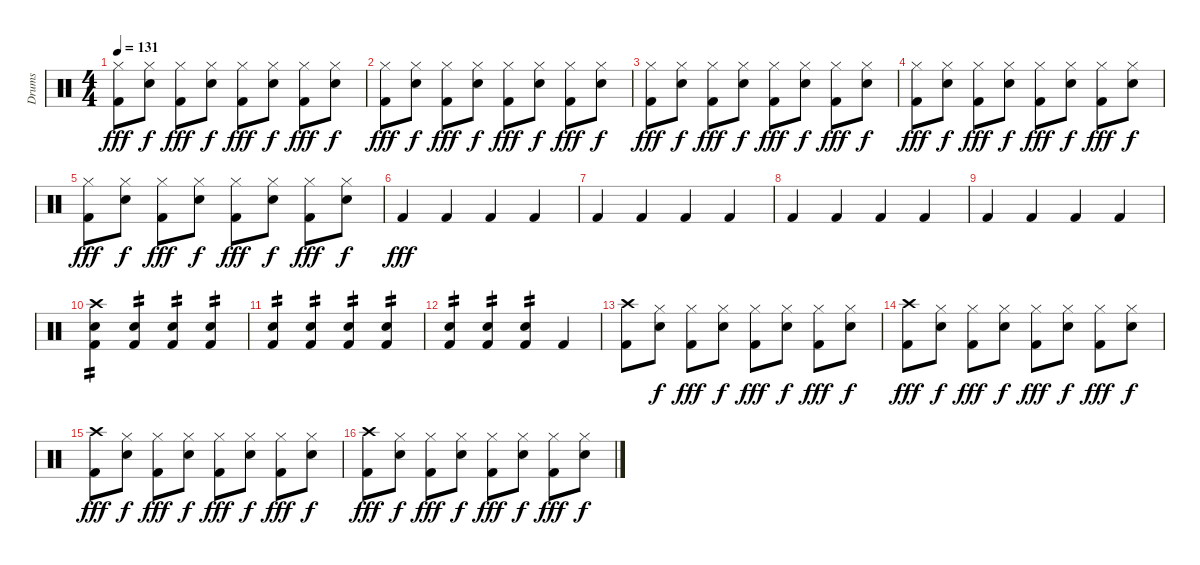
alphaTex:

\track ("Drums" "Drums") {instrument percussion}
\staff {score}
\articulation defaults
\ts (4 4)
\tempo 131
\clef neutral
\ks c
("Hi-Hat (closed)" "Kick (hit) 2").8{dy fff} ("Hi-Hat (closed)" "Electric Snare (hit)").8{dy f} ("Hi-Hat (closed)" "Kick (hit) 2").8{dy fff} ("Hi-Hat (closed)" "Electric Snare (hit)").8{dy f} ("Hi-Hat (closed)" "Kick (hit) 2").8{dy fff} ("Hi-Hat (closed)" "Electric Snare (hit)").8{dy f} ("Hi-Hat (closed)" "Kick (hit) 2").8{dy fff} ("Hi-Hat (closed)" "Electric Snare (hit)").8{dy f} |
("Hi-Hat (closed)" "Kick (hit) 2").8{dy fff} ("Hi-Hat (closed)" "Electric Snare (hit)").8{dy f} ("Hi-Hat (closed)" "Kick (hit) 2").8{dy fff} ("Hi-Hat (closed)" "Electric Snare (hit)").8{dy f} ("Hi-Hat (closed)" "Kick (hit) 2").8{dy fff} ("Hi-Hat (closed)" "Electric Snare (hit)").8{dy f} ("Hi-Hat (closed)" "Kick (hit) 2").8{dy fff} ("Hi-Hat (closed)" "Electric Snare (hit)").8{dy f} |
("Hi-Hat (closed)" "Kick (hit) 2").8{dy fff} ("Hi-Hat (closed)" "Electric Snare (hit)").8{dy f} ("Hi-Hat (closed)" "Kick (hit) 2").8{dy fff} ("Hi-Hat (closed)" "Electric Snare (hit)").8{dy f} ("Hi-Hat (closed)" "Kick (hit) 2").8{dy fff} ("Hi-Hat (closed)" "Electric Snare (hit)").8{dy f} ("Hi-Hat (closed)" "Kick (hit) 2").8{dy fff} ("Hi-Hat (closed)" "Electric Snare (hit)").8{dy f} |
("Hi-Hat (closed)" "Kick (hit) 2").8{dy fff} ("Hi-Hat (closed)" "Electric Snare (hit)").8{dy f} ("Hi-Hat (closed)" "Kick (hit) 2").8{dy fff} ("Hi-Hat (closed)" "Electric Snare (hit)").8{dy f} ("Hi-Hat (closed)" "Kick (hit) 2").8{dy fff} ("Hi-Hat (closed)" "Electric Snare (hit)").8{dy f} ("Hi-Hat (closed)" "Kick (hit) 2").8{dy fff} ("Hi-Hat (closed)" "Electric Snare (hit)").8{dy f} |
("Hi-Hat (closed)" "Kick (hit) 2").8{dy fff} ("Hi-Hat (closed)" "Electric Snare (hit)").8{dy f} ("Hi-Hat (closed)" "Kick (hit) 2").8{dy fff} ("Hi-Hat (closed)" "Electric Snare (hit)").8{dy f} ("Hi-Hat (closed)" "Kick (hit) 2").8{dy fff} ("Hi-Hat (closed)" "Electric Snare (hit)").8{dy f} ("Hi-Hat (closed)" "Kick (hit) 2").8{dy fff} ("Hi-Hat (closed)" "Electric Snare (hit)").8{dy f} |
"Kick (hit) 2".4{dy fff} "Kick (hit) 2".4 "Kick (hit) 2".4 "Kick (hit) 2".4 |
"Kick (hit) 2".4 "Kick (hit) 2".4 "Kick (hit) 2".4 "Kick (hit) 2".4 |
"Kick (hit) 2".4 "Kick (hit) 2".4 "Kick (hit) 2".4 "Kick (hit) 2".4 |
"Kick (hit) 2".4 "Kick (hit) 2".4 "Kick (hit) 2".4 "Kick (hit) 2".4 |
("Crash high (hit)" "Electric Snare (hit)" "Kick (hit) 2").4{tp 2} ("Electric Snare (hit)" "Kick (hit) 2").4{tp 2} ("Electric Snare (hit)" "Kick (hit) 2").4{tp 2} ("Electric Snare (hit)" "Kick (hit) 2").4{tp 2} |
("Electric Snare (hit)" "Kick (hit) 2").4{tp 2} ("Electric Snare (hit)" "Kick (hit) 2").4{tp 2} ("Electric Snare (hit)" "Kick (hit) 2").4{tp 2} ("Electric Snare (hit)" "Kick (hit) 2").4{tp 2} |
("Electric Snare (hit)" "Kick (hit) 2").4{tp 2} ("Electric Snare (hit)" "Kick (hit) 2").4{tp 2} ("Electric Snare (hit)" "Kick (hit) 2").4{tp 2} "Kick (hit) 2".4 |
("Crash high (hit)" "Kick (hit) 2").8 ("Hi-Hat (closed)" "Electric Snare (hit)").8{dy f} ("Hi-Hat (closed)" "Kick (hit) 2").8{dy fff} ("Hi-Hat (closed)" "Electric Snare (hit)").8{dy f} ("Hi-Hat (closed)" "Kick (hit) 2").8{dy fff} ("Hi-Hat (closed)" "Electric Snare (hit)").8{dy f} ("Hi-Hat (closed)" "Kick (hit) 2").8{dy fff} ("Hi-Hat (closed)" "Electric Snare (hit)").8{dy f} |
("Crash high (hit)" "Kick (hit) 2").8{dy fff} ("Hi-Hat (closed)" "Electric Snare (hit)").8{dy f} ("Hi-Hat (closed)" "Kick (hit) 2").8{dy fff} ("Hi-Hat (closed)" "Electric Snare (hit)").8{dy f} ("Hi-Hat (closed)" "Kick (hit) 2").8{dy fff} ("Hi-Hat (closed)" "Electric Snare (hit)").8{dy f} ("Hi-Hat (closed)" "Kick (hit) 2").8{dy fff} ("Hi-Hat (closed)" "Electric Snare (hit)").8{dy f} |
("Crash high (hit)" "Kick (hit) 2").8{dy fff} ("Hi-Hat (closed)" "Electric Snare (hit)").8{dy f} ("Hi-Hat (closed)" "Kick (hit) 2").8{dy fff} ("Hi-Hat (closed)" "Electric Snare (hit)").8{dy f} ("Hi-Hat (closed)" "Kick (hit) 2").8{dy fff} ("Hi-Hat (closed)" "Electric Snare (hit)").8{dy f} ("Hi-Hat (closed)" "Kick (hit) 2").8{dy fff} ("Hi-Hat (closed)" "Electric Snare (hit)").8{dy f} |
("Crash high (hit)" "Kick (hit) 2").8{dy fff} ("Hi-Hat (closed)" "Electric Snare (hit)").8{dy f} ("Hi-Hat (closed)" "Kick (hit) 2").8{dy fff} ("Hi-Hat (closed)" "Electric Snare (hit)").8{dy f} ("Hi-Hat (closed)" "Kick (hit) 2").8{dy fff} ("Hi-Hat (closed)" "Electric Snare (hit)").8{dy f} ("Hi-Hat (closed)" "Kick (hit) 2").8{dy fff} ("Hi-Hat (closed)" "Electric Snare (hit)").8{dy f}
